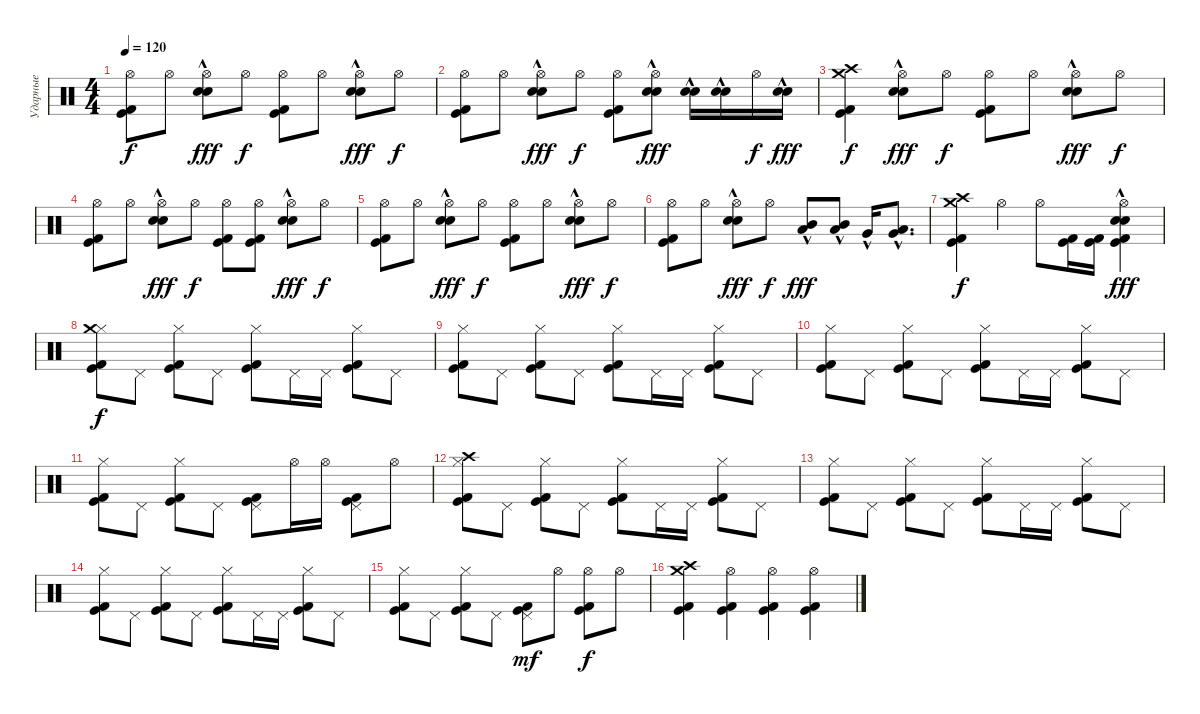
\track ("Ударные" "Ударные") {instrument percussion}
\staff {score}
\articulation defaults
\ts (4 4)
\tempo 120
\clef neutral
\ks c
("Hi-Hat (open)" "Kick (hit)" "Kick (hit) 2").8{dy f} "Hi-Hat (open)".8 ("Hi-Hat (open)" "Snare (hit) 2"{hac} "Electric Snare (hit)"{hac}).8{dy fff} "Hi-Hat (open)".8{dy f} ("Hi-Hat (open)" "Kick (hit)" "Kick (hit) 2").8 "Hi-Hat (open)".8 ("Hi-Hat (open)" "Snare (hit) 2"{hac} "Electric Snare (hit)"{hac}).8{dy fff} "Hi-Hat (open)".8{dy f} |
("Hi-Hat (open)" "Kick (hit)" "Kick (hit) 2").8 "Hi-Hat (open)".8 ("Hi-Hat (open)" "Snare (hit) 2"{hac} "Electric Snare (hit)"{hac}).8{dy fff} "Hi-Hat (open)".8{dy f} ("Hi-Hat (open)" "Kick (hit)" "Kick (hit) 2").8 ("Hi-Hat (open)" "Snare (hit) 2"{hac} "Electric Snare (hit)"{hac}).8{dy fff} ("Snare (hit) 2"{hac} "Electric Snare (hit)"{hac}).16 ("Snare (hit) 2"{hac} "Electric Snare (hit)"{hac}).16 "Hi-Hat (open)".16{dy f} ("Snare (hit) 2"{hac} "Electric Snare (hit)"{hac}).16{dy fff} |
("Crash high (hit)" "Kick (hit)" "Kick (hit) 2" "Crash medium (hit)").4{dy f} ("Hi-Hat (open)" "Snare (hit) 2"{hac} "Electric Snare (hit)"{hac}).8{dy fff} "Hi-Hat (open)".8{dy f} ("Hi-Hat (open)" "Kick (hit)" "Kick (hit) 2").8 "Hi-Hat (open)".8 ("Hi-Hat (open)" "Snare (hit) 2"{hac} "Electric Snare (hit)"{hac}).8{dy fff} "Hi-Hat (open)".8{dy f} |
("Hi-Hat (open)" "Kick (hit)" "Kick (hit) 2").8 "Hi-Hat (open)".8 ("Hi-Hat (open)" "Snare (hit) 2"{hac} "Electric Snare (hit)"{hac}).8{dy fff} "Hi-Hat (open)".8{dy f} ("Hi-Hat (open)" "Kick (hit)" "Kick (hit) 2").8 ("Hi-Hat (open)" "Kick (hit)" "Kick (hit) 2").8 ("Hi-Hat (open)" "Snare (hit) 2"{hac} "Electric Snare (hit)"{hac}).8{dy fff} "Hi-Hat (open)".8{dy f} |
("Hi-Hat (open)" "Kick (hit)" "Kick (hit) 2").8 "Hi-Hat (open)".8 ("Hi-Hat (open)" "Snare (hit) 2"{hac} "Electric Snare (hit)"{hac}).8{dy fff} "Hi-Hat (open)".8{dy f} ("Hi-Hat (open)" "Kick (hit)" "Kick (hit) 2").8 "Hi-Hat (open)".8 ("Hi-Hat (open)" "Snare (hit) 2"{hac} "Electric Snare (hit)"{hac}).8{dy fff} "Hi-Hat (open)".8{dy f} |
("Hi-Hat (open)" "Kick (hit)" "Kick (hit) 2").8 "Hi-Hat (open)".8 ("Hi-Hat (open)" "Snare (hit) 2"{hac} "Electric Snare (hit)"{hac}).8{dy fff} "Hi-Hat (open)".8{dy f} ("Low Tom (hit)"{hac} "Mid Tom (hit)"{hac}).8{dy fff} ("Low Tom (hit)"{hac} "Mid Tom (hit)"{hac}).8 "Very Low Tom (hit)"{hac}.16 ("Low Floor Tom (hit)"{hac} "Very Low Tom (hit)"{hac}).8{d} |
("Crash high (hit)" "Kick (hit)" "Kick (hit) 2" "Crash medium (hit)").4{dy f} "Hi-Hat (open)".4 "Hi-Hat (open)".8 ("Kick (hit)" "Kick (hit) 2").16 ("Kick (hit)" "Kick (hit) 2").16 ("Hi-Hat (open)" "Kick (hit)" "Kick (hit) 2" "Snare (hit) 2"{hac} "Electric Snare (hit)"{hac}).4{dy fff} |
("Hi-Hat (closed)" "Kick (hit)" "Kick (hit) 2" "Crash medium (hit)").8{dy f} "Pedal Hi-Hat (hit)".8 ("Hi-Hat (closed)" "Kick (hit)" "Kick (hit) 2").8 "Pedal Hi-Hat (hit)".8 ("Hi-Hat (closed)" "Kick (hit)" "Kick (hit) 2").8 "Pedal Hi-Hat (hit)".16 "Pedal Hi-Hat (hit)".16 ("Hi-Hat (closed)" "Kick (hit)" "Kick (hit) 2").8 "Pedal Hi-Hat (hit)".8 |
("Hi-Hat (closed)" "Kick (hit)" "Kick (hit) 2").8 "Pedal Hi-Hat (hit)".8 ("Hi-Hat (closed)" "Kick (hit)" "Kick (hit) 2").8 "Pedal Hi-Hat (hit)".8 ("Hi-Hat (closed)" "Kick (hit)" "Kick (hit) 2").8 "Pedal Hi-Hat (hit)".16 "Pedal Hi-Hat (hit)".16 ("Hi-Hat (closed)" "Kick (hit)" "Kick (hit) 2").8 "Pedal Hi-Hat (hit)".8 |
("Hi-Hat (closed)" "Kick (hit)" "Kick (hit) 2").8 "Pedal Hi-Hat (hit)".8 ("Hi-Hat (closed)" "Kick (hit)" "Kick (hit) 2").8 "Pedal Hi-Hat (hit)".8 ("Hi-Hat (closed)" "Kick (hit)" "Kick (hit) 2").8 "Pedal Hi-Hat (hit)".16 "Pedal Hi-Hat (hit)".16 ("Hi-Hat (closed)" "Kick (hit)" "Kick (hit) 2").8 "Pedal Hi-Hat (hit)".8 |
("Hi-Hat (closed)" "Kick (hit)" "Kick (hit) 2").8 "Pedal Hi-Hat (hit)".8 ("Hi-Hat (closed)" "Kick (hit)" "Kick (hit) 2").8 "Pedal Hi-Hat (hit)".8 ("Pedal Hi-Hat (hit)" "Kick (hit)" "Kick (hit) 2").8 "Hi-Hat (open)".16 "Hi-Hat (open)".16 ("Pedal Hi-Hat (hit)" "Kick (hit)" "Kick (hit) 2").8 "Hi-Hat (open)".8 |
("Hi-Hat (closed)" "Kick (hit)" "Kick (hit) 2" "Crash high (hit)").8 "Pedal Hi-Hat (hit)".8 ("Hi-Hat (closed)" "Kick (hit)" "Kick (hit) 2").8 "Pedal Hi-Hat (hit)".8 ("Hi-Hat (closed)" "Kick (hit)" "Kick (hit) 2").8 "Pedal Hi-Hat (hit)".16 "Pedal Hi-Hat (hit)".16 ("Hi-Hat (closed)" "Kick (hit)" "Kick (hit) 2").8 "Pedal Hi-Hat (hit)".8 |
("Hi-Hat (closed)" "Kick (hit)" "Kick (hit) 2").8 "Pedal Hi-Hat (hit)".8 ("Hi-Hat (closed)" "Kick (hit)" "Kick (hit) 2").8 "Pedal Hi-Hat (hit)".8 ("Hi-Hat (closed)" "Kick (hit)" "Kick (hit) 2").8 "Pedal Hi-Hat (hit)".16 "Pedal Hi-Hat (hit)".16 ("Hi-Hat (closed)" "Kick (hit)" "Kick (hit) 2").8 "Pedal Hi-Hat (hit)".8 |
("Hi-Hat (closed)" "Kick (hit)" "Kick (hit) 2").8 "Pedal Hi-Hat (hit)".8 ("Hi-Hat (closed)" "Kick (hit)" "Kick (hit) 2").8 "Pedal Hi-Hat (hit)".8 ("Hi-Hat (closed)" "Kick (hit)" "Kick (hit) 2").8 "Pedal Hi-Hat (hit)".16 "Pedal Hi-Hat (hit)".16 ("Hi-Hat (closed)" "Kick (hit)" "Kick (hit) 2").8 "Pedal Hi-Hat (hit)".8 |
("Hi-Hat (closed)" "Kick (hit)" "Kick (hit) 2").8 "Pedal Hi-Hat (hit)".8 ("Hi-Hat (closed)" "Kick (hit)" "Kick (hit) 2").8 "Pedal Hi-Hat (hit)".8 ("Pedal Hi-Hat (hit)" "Kick (hit)" "Kick (hit) 2").8{dy mf} "Hi-Hat (open)".8 ("Hi-Hat (open)" "Kick (hit)" "Kick (hit) 2").8{dy f} "Hi-Hat (open)".8 |
("Crash high (hit)" "Kick (hit)" "Kick (hit) 2" "Crash medium (hit)").4 ("Hi-Hat (open)" "Kick (hit)" "Kick (hit) 2").4 ("Hi-Hat (open)" "Kick (hit)" "Kick (hit) 2").4 ("Hi-Hat (open)" "Kick (hit)" "Kick (hit) 2").4
